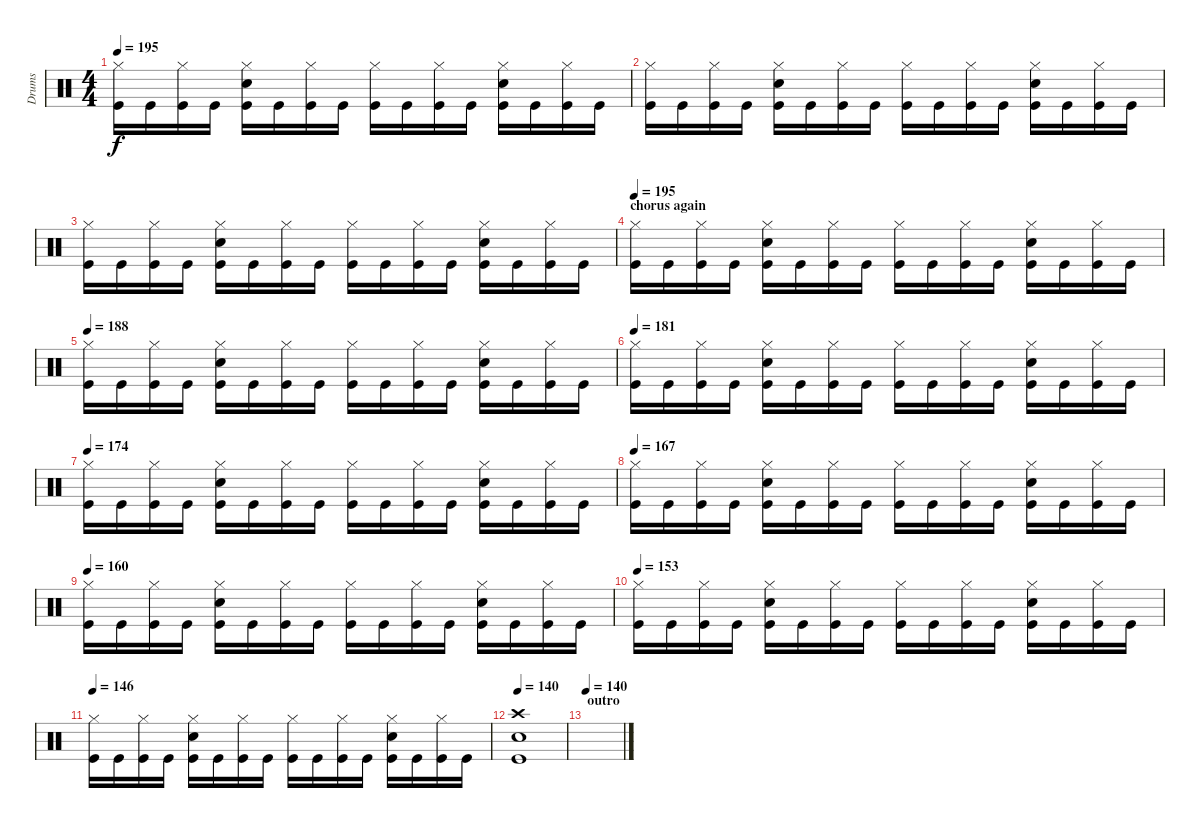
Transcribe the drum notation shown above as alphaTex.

\track ("Drums" "Drums") {instrument percussion}
\staff {score}
\articulation defaults
\ts (4 4)
\tempo 195
\clef neutral
\ks c
("Hi-Hat (closed)" "Kick (hit)").16{dy f} "Kick (hit)".16 ("Hi-Hat (closed)" "Kick (hit)").16 "Kick (hit)".16 ("Hi-Hat (closed)" "Snare (hit) 2" "Kick (hit)").16 "Kick (hit)".16 ("Hi-Hat (closed)" "Kick (hit)").16 "Kick (hit)".16 ("Hi-Hat (closed)" "Kick (hit)").16 "Kick (hit)".16 ("Hi-Hat (closed)" "Kick (hit)").16 "Kick (hit)".16 ("Hi-Hat (closed)" "Snare (hit) 2" "Kick (hit)").16 "Kick (hit)".16 ("Hi-Hat (closed)" "Kick (hit)").16 "Kick (hit)".16 |
("Hi-Hat (closed)" "Kick (hit)").16 "Kick (hit)".16 ("Hi-Hat (closed)" "Kick (hit)").16 "Kick (hit)".16 ("Hi-Hat (closed)" "Snare (hit) 2" "Kick (hit)").16 "Kick (hit)".16 ("Hi-Hat (closed)" "Kick (hit)").16 "Kick (hit)".16 ("Hi-Hat (closed)" "Kick (hit)").16 "Kick (hit)".16 ("Hi-Hat (closed)" "Kick (hit)").16 "Kick (hit)".16 ("Hi-Hat (closed)" "Snare (hit) 2" "Kick (hit)").16 "Kick (hit)".16 ("Hi-Hat (closed)" "Kick (hit)").16 "Kick (hit)".16 |
("Hi-Hat (closed)" "Kick (hit)").16 "Kick (hit)".16 ("Hi-Hat (closed)" "Kick (hit)").16 "Kick (hit)".16 ("Hi-Hat (closed)" "Snare (hit) 2" "Kick (hit)").16 "Kick (hit)".16 ("Hi-Hat (closed)" "Kick (hit)").16 "Kick (hit)".16 ("Hi-Hat (closed)" "Kick (hit)").16 "Kick (hit)".16 ("Hi-Hat (closed)" "Kick (hit)").16 "Kick (hit)".16 ("Hi-Hat (closed)" "Snare (hit) 2" "Kick (hit)").16 "Kick (hit)".16 ("Hi-Hat (closed)" "Kick (hit)").16 "Kick (hit)".16 |
\section ("" "chorus again")
\tempo 195
("Hi-Hat (closed)" "Kick (hit)").16 "Kick (hit)".16 ("Hi-Hat (closed)" "Kick (hit)").16 "Kick (hit)".16 ("Hi-Hat (closed)" "Snare (hit) 2" "Kick (hit)").16 "Kick (hit)".16 ("Hi-Hat (closed)" "Kick (hit)").16 "Kick (hit)".16 ("Hi-Hat (closed)" "Kick (hit)").16 "Kick (hit)".16 ("Hi-Hat (closed)" "Kick (hit)").16 "Kick (hit)".16 ("Hi-Hat (closed)" "Snare (hit) 2" "Kick (hit)").16 "Kick (hit)".16 ("Hi-Hat (closed)" "Kick (hit)").16 "Kick (hit)".16 |
\tempo 188
("Hi-Hat (closed)" "Kick (hit)").16 "Kick (hit)".16 ("Hi-Hat (closed)" "Kick (hit)").16 "Kick (hit)".16 ("Hi-Hat (closed)" "Snare (hit) 2" "Kick (hit)").16 "Kick (hit)".16 ("Hi-Hat (closed)" "Kick (hit)").16 "Kick (hit)".16 ("Hi-Hat (closed)" "Kick (hit)").16 "Kick (hit)".16 ("Hi-Hat (closed)" "Kick (hit)").16 "Kick (hit)".16 ("Hi-Hat (closed)" "Snare (hit) 2" "Kick (hit)").16 "Kick (hit)".16 ("Hi-Hat (closed)" "Kick (hit)").16 "Kick (hit)".16 |
\tempo 181
("Hi-Hat (closed)" "Kick (hit)").16 "Kick (hit)".16 ("Hi-Hat (closed)" "Kick (hit)").16 "Kick (hit)".16 ("Hi-Hat (closed)" "Snare (hit) 2" "Kick (hit)").16 "Kick (hit)".16 ("Hi-Hat (closed)" "Kick (hit)").16 "Kick (hit)".16 ("Hi-Hat (closed)" "Kick (hit)").16 "Kick (hit)".16 ("Hi-Hat (closed)" "Kick (hit)").16 "Kick (hit)".16 ("Hi-Hat (closed)" "Snare (hit) 2" "Kick (hit)").16 "Kick (hit)".16 ("Hi-Hat (closed)" "Kick (hit)").16 "Kick (hit)".16 |
\tempo 174
("Hi-Hat (closed)" "Kick (hit)").16 "Kick (hit)".16 ("Hi-Hat (closed)" "Kick (hit)").16 "Kick (hit)".16 ("Hi-Hat (closed)" "Snare (hit) 2" "Kick (hit)").16 "Kick (hit)".16 ("Hi-Hat (closed)" "Kick (hit)").16 "Kick (hit)".16 ("Hi-Hat (closed)" "Kick (hit)").16 "Kick (hit)".16 ("Hi-Hat (closed)" "Kick (hit)").16 "Kick (hit)".16 ("Hi-Hat (closed)" "Snare (hit) 2" "Kick (hit)").16 "Kick (hit)".16 ("Hi-Hat (closed)" "Kick (hit)").16 "Kick (hit)".16 |
\tempo 167
("Hi-Hat (closed)" "Kick (hit)").16 "Kick (hit)".16 ("Hi-Hat (closed)" "Kick (hit)").16 "Kick (hit)".16 ("Hi-Hat (closed)" "Snare (hit) 2" "Kick (hit)").16 "Kick (hit)".16 ("Hi-Hat (closed)" "Kick (hit)").16 "Kick (hit)".16 ("Hi-Hat (closed)" "Kick (hit)").16 "Kick (hit)".16 ("Hi-Hat (closed)" "Kick (hit)").16 "Kick (hit)".16 ("Hi-Hat (closed)" "Snare (hit) 2" "Kick (hit)").16 "Kick (hit)".16 ("Hi-Hat (closed)" "Kick (hit)").16 "Kick (hit)".16 |
\tempo 160
("Hi-Hat (closed)" "Kick (hit)").16 "Kick (hit)".16 ("Hi-Hat (closed)" "Kick (hit)").16 "Kick (hit)".16 ("Hi-Hat (closed)" "Snare (hit) 2" "Kick (hit)").16 "Kick (hit)".16 ("Hi-Hat (closed)" "Kick (hit)").16 "Kick (hit)".16 ("Hi-Hat (closed)" "Kick (hit)").16 "Kick (hit)".16 ("Hi-Hat (closed)" "Kick (hit)").16 "Kick (hit)".16 ("Hi-Hat (closed)" "Snare (hit) 2" "Kick (hit)").16 "Kick (hit)".16 ("Hi-Hat (closed)" "Kick (hit)").16 "Kick (hit)".16 |
\tempo 153
("Hi-Hat (closed)" "Kick (hit)").16 "Kick (hit)".16 ("Hi-Hat (closed)" "Kick (hit)").16 "Kick (hit)".16 ("Hi-Hat (closed)" "Snare (hit) 2" "Kick (hit)").16 "Kick (hit)".16 ("Hi-Hat (closed)" "Kick (hit)").16 "Kick (hit)".16 ("Hi-Hat (closed)" "Kick (hit)").16 "Kick (hit)".16 ("Hi-Hat (closed)" "Kick (hit)").16 "Kick (hit)".16 ("Hi-Hat (closed)" "Snare (hit) 2" "Kick (hit)").16 "Kick (hit)".16 ("Hi-Hat (closed)" "Kick (hit)").16 "Kick (hit)".16 |
\tempo 146
("Hi-Hat (closed)" "Kick (hit)").16 "Kick (hit)".16 ("Hi-Hat (closed)" "Kick (hit)").16 "Kick (hit)".16 ("Hi-Hat (closed)" "Snare (hit) 2" "Kick (hit)").16 "Kick (hit)".16 ("Hi-Hat (closed)" "Kick (hit)").16 "Kick (hit)".16 ("Hi-Hat (closed)" "Kick (hit)").16 "Kick (hit)".16 ("Hi-Hat (closed)" "Kick (hit)").16 "Kick (hit)".16 ("Hi-Hat (closed)" "Snare (hit) 2" "Kick (hit)").16 "Kick (hit)".16 ("Hi-Hat (closed)" "Kick (hit)").16 "Kick (hit)".16 |
\tempo 140
("Crash high (hit)" "Snare (hit) 2" "Kick (hit)").1 |
\section ("" "outro")
\tempo 140
